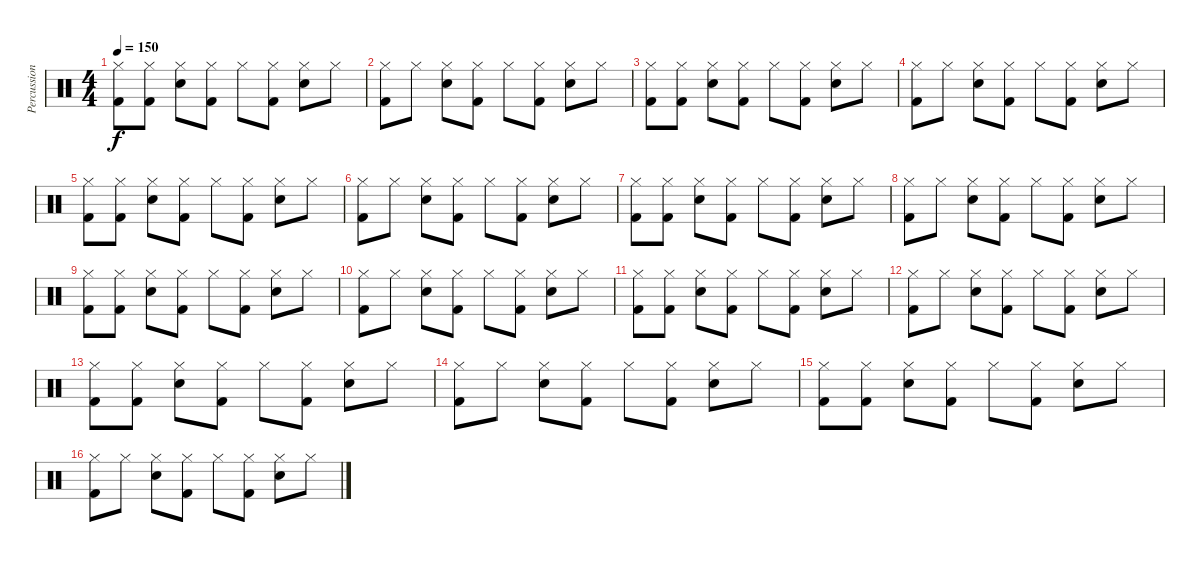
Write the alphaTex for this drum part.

\track ("Percussion" "Percussion") {instrument percussion}
\staff {score}
\articulation defaults
\ts (4 4)
\tempo 150
\clef neutral
\ks c
("Hi-Hat (closed)" "Kick (hit) 2").8{dy f} ("Hi-Hat (closed)" "Kick (hit) 2").8 ("Hi-Hat (closed)" "Electric Snare (hit)").8 ("Hi-Hat (closed)" "Kick (hit) 2").8 "Hi-Hat (closed)".8 ("Hi-Hat (closed)" "Kick (hit) 2").8 ("Hi-Hat (closed)" "Electric Snare (hit)").8 "Hi-Hat (closed)".8 |
("Hi-Hat (closed)" "Kick (hit) 2").8 "Hi-Hat (closed)".8 ("Hi-Hat (closed)" "Electric Snare (hit)").8 ("Hi-Hat (closed)" "Kick (hit) 2").8 "Hi-Hat (closed)".8 ("Hi-Hat (closed)" "Kick (hit) 2").8 ("Hi-Hat (closed)" "Electric Snare (hit)").8 "Hi-Hat (closed)".8 |
("Hi-Hat (closed)" "Kick (hit) 2").8 ("Hi-Hat (closed)" "Kick (hit) 2").8 ("Hi-Hat (closed)" "Electric Snare (hit)").8 ("Hi-Hat (closed)" "Kick (hit) 2").8 "Hi-Hat (closed)".8 ("Hi-Hat (closed)" "Kick (hit) 2").8 ("Hi-Hat (closed)" "Electric Snare (hit)").8 "Hi-Hat (closed)".8 |
("Hi-Hat (closed)" "Kick (hit) 2").8 "Hi-Hat (closed)".8 ("Hi-Hat (closed)" "Electric Snare (hit)").8 ("Hi-Hat (closed)" "Kick (hit) 2").8 "Hi-Hat (closed)".8 ("Hi-Hat (closed)" "Kick (hit) 2").8 ("Hi-Hat (closed)" "Electric Snare (hit)").8 "Hi-Hat (closed)".8 |
("Hi-Hat (closed)" "Kick (hit) 2").8 ("Hi-Hat (closed)" "Kick (hit) 2").8 ("Hi-Hat (closed)" "Electric Snare (hit)").8 ("Hi-Hat (closed)" "Kick (hit) 2").8 "Hi-Hat (closed)".8 ("Hi-Hat (closed)" "Kick (hit) 2").8 ("Hi-Hat (closed)" "Electric Snare (hit)").8 "Hi-Hat (closed)".8 |
("Hi-Hat (closed)" "Kick (hit) 2").8 "Hi-Hat (closed)".8 ("Hi-Hat (closed)" "Electric Snare (hit)").8 ("Hi-Hat (closed)" "Kick (hit) 2").8 "Hi-Hat (closed)".8 ("Hi-Hat (closed)" "Kick (hit) 2").8 ("Hi-Hat (closed)" "Electric Snare (hit)").8 "Hi-Hat (closed)".8 |
("Hi-Hat (closed)" "Kick (hit) 2").8 ("Hi-Hat (closed)" "Kick (hit) 2").8 ("Hi-Hat (closed)" "Electric Snare (hit)").8 ("Hi-Hat (closed)" "Kick (hit) 2").8 "Hi-Hat (closed)".8 ("Hi-Hat (closed)" "Kick (hit) 2").8 ("Hi-Hat (closed)" "Electric Snare (hit)").8 "Hi-Hat (closed)".8 |
("Hi-Hat (closed)" "Kick (hit) 2").8 "Hi-Hat (closed)".8 ("Hi-Hat (closed)" "Electric Snare (hit)").8 ("Hi-Hat (closed)" "Kick (hit) 2").8 "Hi-Hat (closed)".8 ("Hi-Hat (closed)" "Kick (hit) 2").8 ("Hi-Hat (closed)" "Electric Snare (hit)").8 "Hi-Hat (closed)".8 |
("Hi-Hat (closed)" "Kick (hit) 2").8 ("Hi-Hat (closed)" "Kick (hit) 2").8 ("Hi-Hat (closed)" "Electric Snare (hit)").8 ("Hi-Hat (closed)" "Kick (hit) 2").8 "Hi-Hat (closed)".8 ("Hi-Hat (closed)" "Kick (hit) 2").8 ("Hi-Hat (closed)" "Electric Snare (hit)").8 "Hi-Hat (closed)".8 |
("Hi-Hat (closed)" "Kick (hit) 2").8 "Hi-Hat (closed)".8 ("Hi-Hat (closed)" "Electric Snare (hit)").8 ("Hi-Hat (closed)" "Kick (hit) 2").8 "Hi-Hat (closed)".8 ("Hi-Hat (closed)" "Kick (hit) 2").8 ("Hi-Hat (closed)" "Electric Snare (hit)").8 "Hi-Hat (closed)".8 |
("Hi-Hat (closed)" "Kick (hit) 2").8 ("Hi-Hat (closed)" "Kick (hit) 2").8 ("Hi-Hat (closed)" "Electric Snare (hit)").8 ("Hi-Hat (closed)" "Kick (hit) 2").8 "Hi-Hat (closed)".8 ("Hi-Hat (closed)" "Kick (hit) 2").8 ("Hi-Hat (closed)" "Electric Snare (hit)").8 "Hi-Hat (closed)".8 |
("Hi-Hat (closed)" "Kick (hit) 2").8 "Hi-Hat (closed)".8 ("Hi-Hat (closed)" "Electric Snare (hit)").8 ("Hi-Hat (closed)" "Kick (hit) 2").8 "Hi-Hat (closed)".8 ("Hi-Hat (closed)" "Kick (hit) 2").8 ("Hi-Hat (closed)" "Electric Snare (hit)").8 "Hi-Hat (closed)".8 |
("Hi-Hat (closed)" "Kick (hit) 2").8 ("Hi-Hat (closed)" "Kick (hit) 2").8 ("Hi-Hat (closed)" "Electric Snare (hit)").8 ("Hi-Hat (closed)" "Kick (hit) 2").8 "Hi-Hat (closed)".8 ("Hi-Hat (closed)" "Kick (hit) 2").8 ("Hi-Hat (closed)" "Electric Snare (hit)").8 "Hi-Hat (closed)".8 |
("Hi-Hat (closed)" "Kick (hit) 2").8 "Hi-Hat (closed)".8 ("Hi-Hat (closed)" "Electric Snare (hit)").8 ("Hi-Hat (closed)" "Kick (hit) 2").8 "Hi-Hat (closed)".8 ("Hi-Hat (closed)" "Kick (hit) 2").8 ("Hi-Hat (closed)" "Electric Snare (hit)").8 "Hi-Hat (closed)".8 |
("Hi-Hat (closed)" "Kick (hit) 2").8 ("Hi-Hat (closed)" "Kick (hit) 2").8 ("Hi-Hat (closed)" "Electric Snare (hit)").8 ("Hi-Hat (closed)" "Kick (hit) 2").8 "Hi-Hat (closed)".8 ("Hi-Hat (closed)" "Kick (hit) 2").8 ("Hi-Hat (closed)" "Electric Snare (hit)").8 "Hi-Hat (closed)".8 |
("Hi-Hat (closed)" "Kick (hit) 2").8 "Hi-Hat (closed)".8 ("Hi-Hat (closed)" "Electric Snare (hit)").8 ("Hi-Hat (closed)" "Kick (hit) 2").8 "Hi-Hat (closed)".8 ("Hi-Hat (closed)" "Kick (hit) 2").8 ("Hi-Hat (closed)" "Electric Snare (hit)").8 "Hi-Hat (closed)".8
